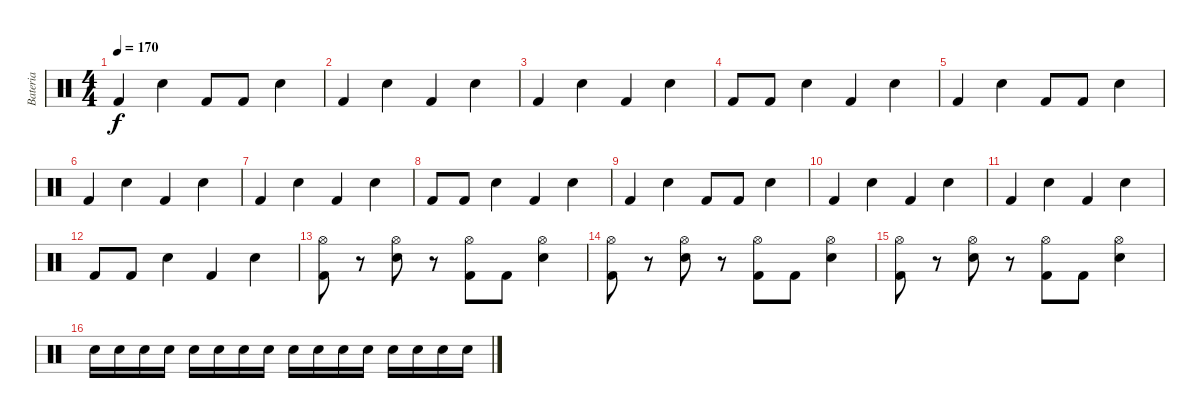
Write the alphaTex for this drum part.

\track ("Bateria" "Bateria") {instrument percussion}
\staff {score}
\articulation defaults
\ts (4 4)
\tempo 170
\clef neutral
\ks c "Kick (hit) 2".4{dy f} "Electric Snare (hit)".4 "Kick (hit) 2".8 "Kick (hit) 2".8 "Electric Snare (hit)".4
|
"Kick (hit) 2".4 "Electric Snare (hit)".4 "Kick (hit) 2".4 "Electric Snare (hit)".4 |
"Kick (hit) 2".4 "Electric Snare (hit)".4 "Kick (hit) 2".4 "Electric Snare (hit)".4 |
"Kick (hit) 2".8 "Kick (hit) 2".8 "Electric Snare (hit)".4 "Kick (hit) 2".4 "Electric Snare (hit)".4 |
"Kick (hit) 2".4 "Electric Snare (hit)".4 "Kick (hit) 2".8 "Kick (hit) 2".8 "Electric Snare (hit)".4 |
"Kick (hit) 2".4 "Electric Snare (hit)".4 "Kick (hit) 2".4 "Electric Snare (hit)".4 |
"Kick (hit) 2".4 "Electric Snare (hit)".4 "Kick (hit) 2".4 "Electric Snare (hit)".4 |
"Kick (hit) 2".8 "Kick (hit) 2".8 "Electric Snare (hit)".4 "Kick (hit) 2".4 "Electric Snare (hit)".4 |
"Kick (hit) 2".4 "Electric Snare (hit)".4 "Kick (hit) 2".8 "Kick (hit) 2".8 "Electric Snare (hit)".4 |
"Kick (hit) 2".4 "Electric Snare (hit)".4 "Kick (hit) 2".4 "Electric Snare (hit)".4 |
"Kick (hit) 2".4 "Electric Snare (hit)".4 "Kick (hit) 2".4 "Electric Snare (hit)".4 |
"Kick (hit) 2".8 "Kick (hit) 2".8 "Electric Snare (hit)".4 "Kick (hit) 2".4 "Electric Snare (hit)".4 |
("Hi-Hat (open)" "Kick (hit) 2").8 r.8 ("Hi-Hat (open)" "Electric Snare (hit)").8 r.8 ("Hi-Hat (open)" "Kick (hit) 2").8 "Kick (hit) 2".8 ("Hi-Hat (open)" "Electric Snare (hit)").4 |
("Hi-Hat (open)" "Kick (hit) 2").8 r.8 ("Hi-Hat (open)" "Electric Snare (hit)").8 r.8 ("Hi-Hat (open)" "Kick (hit) 2").8 "Kick (hit) 2".8 ("Hi-Hat (open)" "Electric Snare (hit)").4 |
("Hi-Hat (open)" "Kick (hit) 2").8 r.8 ("Hi-Hat (open)" "Electric Snare (hit)").8 r.8 ("Hi-Hat (open)" "Kick (hit) 2").8 "Kick (hit) 2".8 ("Hi-Hat (open)" "Electric Snare (hit)").4 |
"Electric Snare (hit)".16 "Electric Snare (hit)".16 "Electric Snare (hit)".16 "Electric Snare (hit)".16 "Electric Snare (hit)".16 "Electric Snare (hit)".16 "Electric Snare (hit)".16 "Electric Snare (hit)".16 "Electric Snare (hit)".16 "Electric Snare (hit)".16 "Electric Snare (hit)".16 "Electric Snare (hit)".16 "Electric Snare (hit)".16 "Electric Snare (hit)".16 "Electric Snare (hit)".16 "Electric Snare (hit)".16
